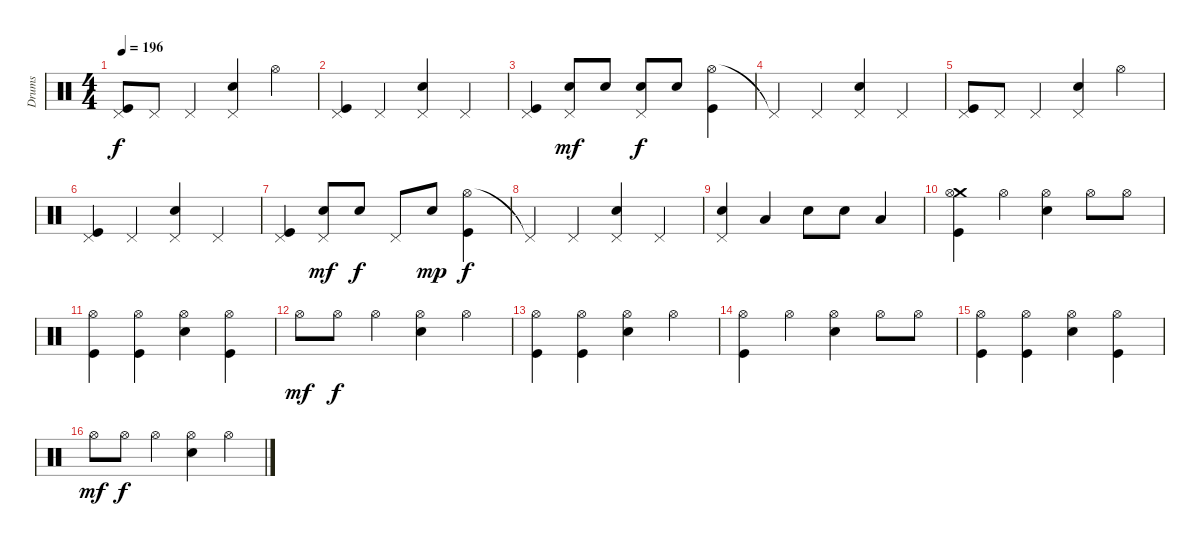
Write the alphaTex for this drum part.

\track ("Drums" "Drums") {instrument percussion}
\staff {score}
\articulation defaults
\ts (4 4)
\tempo 196
\clef neutral
\ks c
("Pedal Hi-Hat (hit)" "Kick (hit)").8{dy f} "Pedal Hi-Hat (hit)".8 "Pedal Hi-Hat (hit)".4 ("Pedal Hi-Hat (hit)" "Electric Snare (hit)").4 "Hi-Hat (open)".4 |
("Pedal Hi-Hat (hit)" "Kick (hit)").4 "Pedal Hi-Hat (hit)".4 ("Pedal Hi-Hat (hit)" "Electric Snare (hit)").4 "Pedal Hi-Hat (hit)".4 |
("Pedal Hi-Hat (hit)" "Kick (hit)").4 ("Pedal Hi-Hat (hit)" "Electric Snare (hit)").8{dy mf} "Electric Snare (hit)".8 ("Pedal Hi-Hat (hit)" "Electric Snare (hit)").8{dy f} "Electric Snare (hit)".8 ("Hi-Hat (open)" "Kick (hit)").4 |
"Pedal Hi-Hat (hit)"{t}.4 "Pedal Hi-Hat (hit)".4 ("Pedal Hi-Hat (hit)" "Electric Snare (hit)").4 "Pedal Hi-Hat (hit)".4 |
("Pedal Hi-Hat (hit)" "Kick (hit)").8 "Pedal Hi-Hat (hit)".8 "Pedal Hi-Hat (hit)".4 ("Pedal Hi-Hat (hit)" "Electric Snare (hit)").4 "Hi-Hat (open)".4 |
("Pedal Hi-Hat (hit)" "Kick (hit)").4 "Pedal Hi-Hat (hit)".4 ("Pedal Hi-Hat (hit)" "Electric Snare (hit)").4 "Pedal Hi-Hat (hit)".4 |
("Pedal Hi-Hat (hit)" "Kick (hit)").4 ("Pedal Hi-Hat (hit)" "Electric Snare (hit)").8{dy mf} "Electric Snare (hit)".8{dy f} "Pedal Hi-Hat (hit)".8 "Electric Snare (hit)".8{dy mp} ("Hi-Hat (open)" "Kick (hit)").4{dy f} |
"Pedal Hi-Hat (hit)"{t}.4 "Pedal Hi-Hat (hit)".4 ("Pedal Hi-Hat (hit)" "Electric Snare (hit)").4 "Pedal Hi-Hat (hit)".4 |
("Pedal Hi-Hat (hit)" "Electric Snare (hit)").4 "Low Tom (hit)".4 "Electric Snare (hit)".8 "Electric Snare (hit)".8 "Low Tom (hit)".4 |
("Crash medium (hit)" "Hi-Hat (open)" "Kick (hit)").4 "Hi-Hat (open)".4 ("Hi-Hat (open)" "Electric Snare (hit)").4 "Hi-Hat (open)".8 "Hi-Hat (open)".8 |
("Hi-Hat (open)" "Kick (hit)").4 ("Hi-Hat (open)" "Kick (hit)").4 ("Hi-Hat (open)" "Electric Snare (hit)").4 ("Hi-Hat (open)" "Kick (hit)").4 |
"Hi-Hat (open)".8{dy mf} "Hi-Hat (open)".8{dy f} "Hi-Hat (open)".4 ("Hi-Hat (open)" "Electric Snare (hit)").4 "Hi-Hat (open)".4 |
("Hi-Hat (open)" "Kick (hit)").4 ("Hi-Hat (open)" "Kick (hit)").4 ("Hi-Hat (open)" "Electric Snare (hit)").4 "Hi-Hat (open)".4 |
("Hi-Hat (open)" "Kick (hit)").4 "Hi-Hat (open)".4 ("Hi-Hat (open)" "Electric Snare (hit)").4 "Hi-Hat (open)".8 "Hi-Hat (open)".8 |
("Hi-Hat (open)" "Kick (hit)").4 ("Hi-Hat (open)" "Kick (hit)").4 ("Hi-Hat (open)" "Electric Snare (hit)").4 ("Hi-Hat (open)" "Kick (hit)").4 |
"Hi-Hat (open)".8{dy mf} "Hi-Hat (open)".8{dy f} "Hi-Hat (open)".4 ("Hi-Hat (open)" "Electric Snare (hit)").4 "Hi-Hat (open)".4
